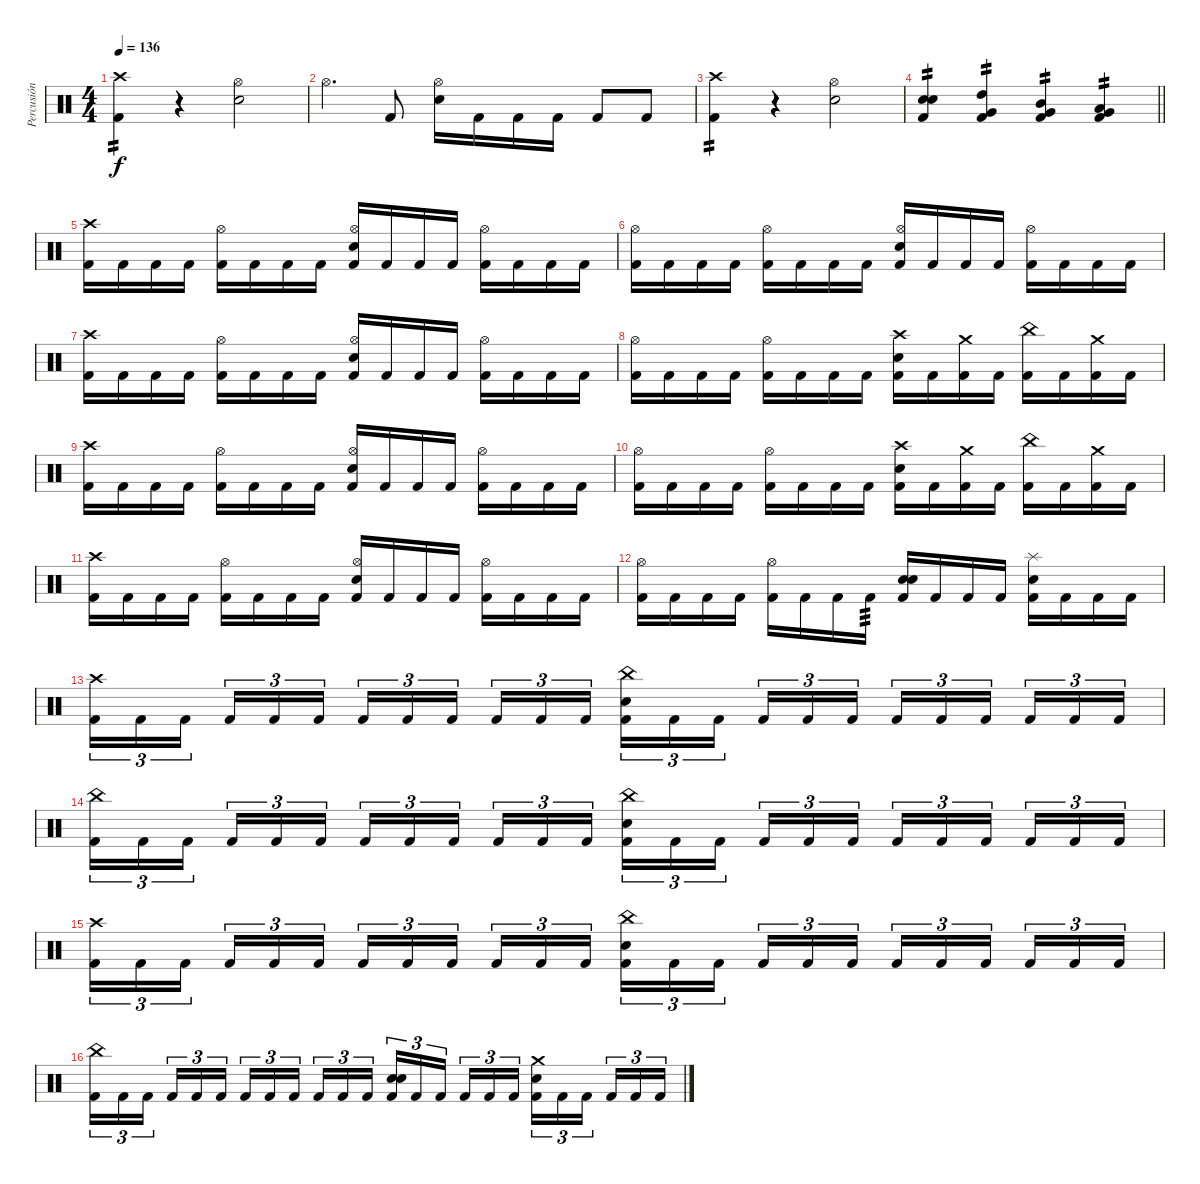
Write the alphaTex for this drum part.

\track ("Percusión" "Percusión") {instrument percussion}
\staff
\articulation defaults
\ts (4 4)
\tempo 136
\clef neutral
\ks c
("Kick (hit) 2" "Crash high (hit)").4{tp 2 dy f} r.4 ("Hi-Hat (open)" "Electric Snare (hit)").2 |
"Hi-Hat (open)".4{d} "Kick (hit) 2".8 ("Hi-Hat (open)" "Electric Snare (hit)").16 "Kick (hit) 2".16 "Kick (hit) 2".16 "Kick (hit) 2".16 "Kick (hit) 2".8 "Kick (hit) 2".8 |
("Kick (hit) 2" "Crash high (hit)").4{tp 2} r.4 ("Hi-Hat (open)" "Electric Snare (hit)").2 |
\barLineRight lightlight
("Kick (hit) 2" "Electric Snare (hit)" "Snare (hit) 2").4{tp 2} ("Kick (hit) 2" "High Tom (hit)" "Very Low Tom (hit)").4{tp 2} ("Kick (hit) 2" "Mid Tom (hit)" "Very Low Tom (hit)").4{tp 2} ("Kick (hit) 2" "Low Tom (hit)" "Very Low Tom (hit)").4{tp 2} |
\section ("" "")
("Kick (hit) 2" "Crash high (hit)").16 "Kick (hit) 2".16 "Kick (hit) 2".16 "Kick (hit) 2".16 ("Kick (hit) 2" "Hi-Hat (open)").16 "Kick (hit) 2".16 "Kick (hit) 2".16 "Kick (hit) 2".16 ("Kick (hit) 2" "Hi-Hat (open)" "Electric Snare (hit)").16 "Kick (hit) 2".16 "Kick (hit) 2".16 "Kick (hit) 2".16 ("Kick (hit) 2" "Hi-Hat (open)").16 "Kick (hit) 2".16 "Kick (hit) 2".16 "Kick (hit) 2".16 |
("Kick (hit) 2" "Hi-Hat (open)").16 "Kick (hit) 2".16 "Kick (hit) 2".16 "Kick (hit) 2".16 ("Kick (hit) 2" "Hi-Hat (open)").16 "Kick (hit) 2".16 "Kick (hit) 2".16 "Kick (hit) 2".16 ("Kick (hit) 2" "Hi-Hat (open)" "Electric Snare (hit)").16 "Kick (hit) 2".16 "Kick (hit) 2".16 "Kick (hit) 2".16 ("Kick (hit) 2" "Hi-Hat (open)").16 "Kick (hit) 2".16 "Kick (hit) 2".16 "Kick (hit) 2".16 |
("Kick (hit) 2" "Crash high (hit)").16 "Kick (hit) 2".16 "Kick (hit) 2".16 "Kick (hit) 2".16 ("Kick (hit) 2" "Hi-Hat (open)").16 "Kick (hit) 2".16 "Kick (hit) 2".16 "Kick (hit) 2".16 ("Kick (hit) 2" "Hi-Hat (open)" "Electric Snare (hit)").16 "Kick (hit) 2".16 "Kick (hit) 2".16 "Kick (hit) 2".16 ("Kick (hit) 2" "Hi-Hat (open)").16 "Kick (hit) 2".16 "Kick (hit) 2".16 "Kick (hit) 2".16 |
("Kick (hit) 2" "Hi-Hat (open)").16 "Kick (hit) 2".16 "Kick (hit) 2".16 "Kick (hit) 2".16 ("Kick (hit) 2" "Hi-Hat (open)").16 "Kick (hit) 2".16 "Kick (hit) 2".16 "Kick (hit) 2".16 ("Kick (hit) 2" "Crash high (hit)" "Electric Snare (hit)").16 "Kick (hit) 2".16 ("Kick (hit) 2" "Crash medium (hit)").16 "Kick (hit) 2".16 ("Kick (hit) 2" "China (hit)").16 "Kick (hit) 2".16 ("Kick (hit) 2" "Crash medium (hit)").16 "Kick (hit) 2".16 |
("Kick (hit) 2" "Crash high (hit)").16 "Kick (hit) 2".16 "Kick (hit) 2".16 "Kick (hit) 2".16 ("Kick (hit) 2" "Hi-Hat (open)").16 "Kick (hit) 2".16 "Kick (hit) 2".16 "Kick (hit) 2".16 ("Kick (hit) 2" "Hi-Hat (open)" "Electric Snare (hit)").16 "Kick (hit) 2".16 "Kick (hit) 2".16 "Kick (hit) 2".16 ("Kick (hit) 2" "Hi-Hat (open)").16 "Kick (hit) 2".16 "Kick (hit) 2".16 "Kick (hit) 2".16 |
("Kick (hit) 2" "Hi-Hat (open)").16 "Kick (hit) 2".16 "Kick (hit) 2".16 "Kick (hit) 2".16 ("Kick (hit) 2" "Hi-Hat (open)").16 "Kick (hit) 2".16 "Kick (hit) 2".16 "Kick (hit) 2".16 ("Kick (hit) 2" "Crash high (hit)" "Electric Snare (hit)").16 "Kick (hit) 2".16 ("Kick (hit) 2" "Crash medium (hit)").16 "Kick (hit) 2".16 ("Kick (hit) 2" "China (hit)").16 "Kick (hit) 2".16 ("Kick (hit) 2" "Crash medium (hit)").16 "Kick (hit) 2".16 |
("Kick (hit) 2" "Crash high (hit)").16 "Kick (hit) 2".16 "Kick (hit) 2".16 "Kick (hit) 2".16 ("Kick (hit) 2" "Hi-Hat (open)").16 "Kick (hit) 2".16 "Kick (hit) 2".16 "Kick (hit) 2".16 ("Kick (hit) 2" "Hi-Hat (open)" "Electric Snare (hit)").16 "Kick (hit) 2".16 "Kick (hit) 2".16 "Kick (hit) 2".16 ("Kick (hit) 2" "Hi-Hat (open)").16 "Kick (hit) 2".16 "Kick (hit) 2".16 "Kick (hit) 2".16 |
("Kick (hit) 2" "Hi-Hat (open)").16 "Kick (hit) 2".16 "Kick (hit) 2".16 "Kick (hit) 2".16 ("Kick (hit) 2" "Hi-Hat (open)").16 "Kick (hit) 2".16 "Kick (hit) 2".16 "Kick (hit) 2".16{tp 3} ("Kick (hit) 2" "Snare (hit) 2" "Electric Snare (hit)").16 "Kick (hit) 2".16 "Kick (hit) 2".16 "Kick (hit) 2".16 ("Kick (hit) 2" "Electric Snare (hit)" "Splash (hit)").16 "Kick (hit) 2".16 "Kick (hit) 2".16 "Kick (hit) 2".16 |
("Kick (hit) 2" "Crash high (hit)").16{tu (3 2)} "Kick (hit) 2".16{tu (3 2)} "Kick (hit) 2".16{tu (3 2) beam splitsecondary} "Kick (hit) 2".16{tu (3 2)} "Kick (hit) 2".16{tu (3 2)} "Kick (hit) 2".16{tu (3 2)} "Kick (hit) 2".16{tu (3 2)} "Kick (hit) 2".16{tu (3 2)} "Kick (hit) 2".16{tu (3 2) beam splitsecondary} "Kick (hit) 2".16{tu (3 2)} "Kick (hit) 2".16{tu (3 2)} "Kick (hit) 2".16{tu (3 2)} ("Kick (hit) 2" "China (hit)" "Electric Snare (hit)").16{tu (3 2)} "Kick (hit) 2".16{tu (3 2)} "Kick (hit) 2".16{tu (3 2) beam splitsecondary} "Kick (hit) 2".16{tu (3 2)} "Kick (hit) 2".16{tu (3 2)} "Kick (hit) 2".16{tu (3 2)} "Kick (hit) 2".16{tu (3 2)} "Kick (hit) 2".16{tu (3 2)} "Kick (hit) 2".16{tu (3 2) beam splitsecondary} "Kick (hit) 2".16{tu (3 2)} "Kick (hit) 2".16{tu (3 2)} "Kick (hit) 2".16{tu (3 2)} |
("Kick (hit) 2" "China (hit)").16{tu (3 2)} "Kick (hit) 2".16{tu (3 2)} "Kick (hit) 2".16{tu (3 2) beam splitsecondary} "Kick (hit) 2".16{tu (3 2)} "Kick (hit) 2".16{tu (3 2)} "Kick (hit) 2".16{tu (3 2)} "Kick (hit) 2".16{tu (3 2)} "Kick (hit) 2".16{tu (3 2)} "Kick (hit) 2".16{tu (3 2) beam splitsecondary} "Kick (hit) 2".16{tu (3 2)} "Kick (hit) 2".16{tu (3 2)} "Kick (hit) 2".16{tu (3 2)} ("Kick (hit) 2" "China (hit)" "Electric Snare (hit)").16{tu (3 2)} "Kick (hit) 2".16{tu (3 2)} "Kick (hit) 2".16{tu (3 2) beam splitsecondary} "Kick (hit) 2".16{tu (3 2)} "Kick (hit) 2".16{tu (3 2)} "Kick (hit) 2".16{tu (3 2)} "Kick (hit) 2".16{tu (3 2)} "Kick (hit) 2".16{tu (3 2)} "Kick (hit) 2".16{tu (3 2) beam splitsecondary} "Kick (hit) 2".16{tu (3 2)} "Kick (hit) 2".16{tu (3 2)} "Kick (hit) 2".16{tu (3 2)} |
("Kick (hit) 2" "Crash high (hit)").16{tu (3 2)} "Kick (hit) 2".16{tu (3 2)} "Kick (hit) 2".16{tu (3 2) beam splitsecondary} "Kick (hit) 2".16{tu (3 2)} "Kick (hit) 2".16{tu (3 2)} "Kick (hit) 2".16{tu (3 2)} "Kick (hit) 2".16{tu (3 2)} "Kick (hit) 2".16{tu (3 2)} "Kick (hit) 2".16{tu (3 2) beam splitsecondary} "Kick (hit) 2".16{tu (3 2)} "Kick (hit) 2".16{tu (3 2)} "Kick (hit) 2".16{tu (3 2)} ("Kick (hit) 2" "China (hit)" "Electric Snare (hit)").16{tu (3 2)} "Kick (hit) 2".16{tu (3 2)} "Kick (hit) 2".16{tu (3 2) beam splitsecondary} "Kick (hit) 2".16{tu (3 2)} "Kick (hit) 2".16{tu (3 2)} "Kick (hit) 2".16{tu (3 2)} "Kick (hit) 2".16{tu (3 2)} "Kick (hit) 2".16{tu (3 2)} "Kick (hit) 2".16{tu (3 2) beam splitsecondary} "Kick (hit) 2".16{tu (3 2)} "Kick (hit) 2".16{tu (3 2)} "Kick (hit) 2".16{tu (3 2)} |
("Kick (hit) 2" "China (hit)").16{tu (3 2)} "Kick (hit) 2".16{tu (3 2)} "Kick (hit) 2".16{tu (3 2) beam splitsecondary} "Kick (hit) 2".16{tu (3 2)} "Kick (hit) 2".16{tu (3 2)} "Kick (hit) 2".16{tu (3 2)} "Kick (hit) 2".16{tu (3 2)} "Kick (hit) 2".16{tu (3 2)} "Kick (hit) 2".16{tu (3 2) beam splitsecondary} "Kick (hit) 2".16{tu (3 2)} "Kick (hit) 2".16{tu (3 2)} "Kick (hit) 2".16{tu (3 2)} ("Kick (hit) 2" "Snare (hit) 2" "Electric Snare (hit)").16{tu (3 2)} "Kick (hit) 2".16{tu (3 2)} "Kick (hit) 2".16{tu (3 2) beam splitsecondary} "Kick (hit) 2".16{tu (3 2)} "Kick (hit) 2".16{tu (3 2)} "Kick (hit) 2".16{tu (3 2)} ("Kick (hit) 2" "Crash medium (hit)" "Electric Snare (hit)").16{tu (3 2)} "Kick (hit) 2".16{tu (3 2)} "Kick (hit) 2".16{tu (3 2) beam splitsecondary} "Kick (hit) 2".16{tu (3 2)} "Kick (hit) 2".16{tu (3 2)} "Kick (hit) 2".16{tu (3 2)}
